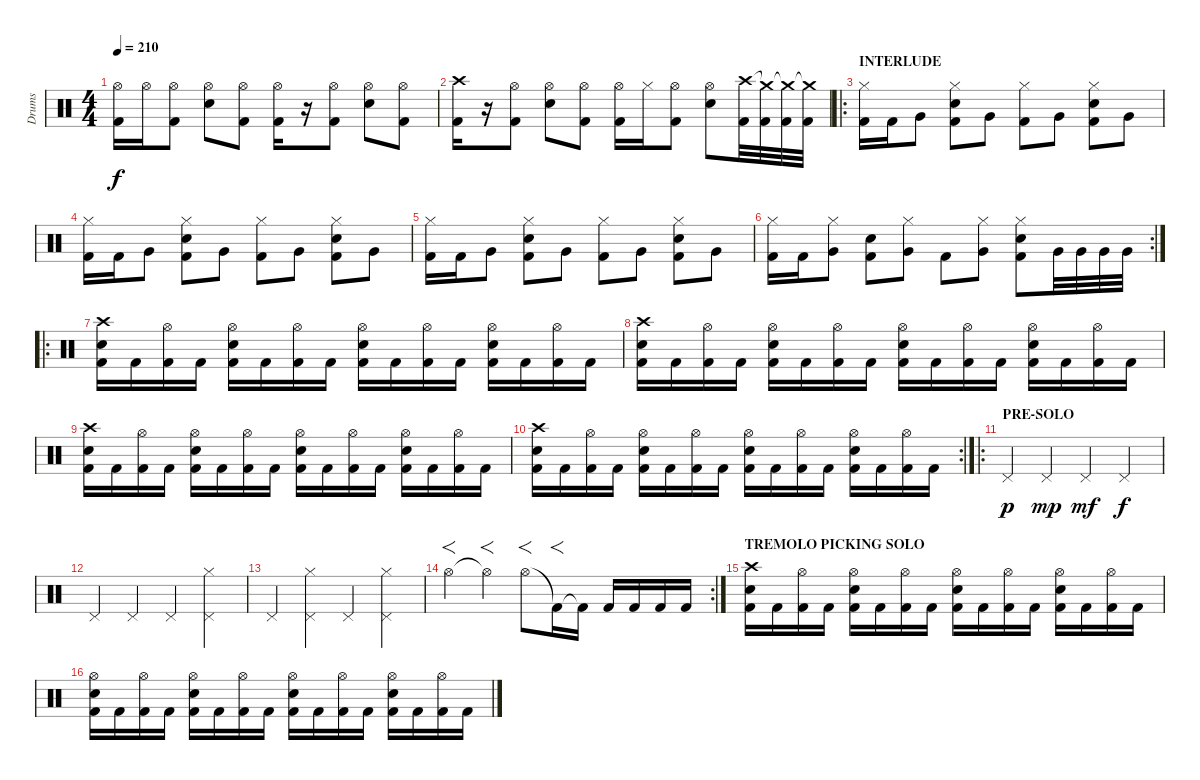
\track ("Drums" "Drums") {instrument percussion}
\staff {score}
\articulation defaults
\ts (4 4)
\tempo 210
\clef neutral
\ks c
("Hi-Hat (open)" "Kick (hit) 2").16{dy f} "Hi-Hat (open)".16 ("Hi-Hat (open)" "Kick (hit) 2").8 ("Hi-Hat (open)" "Electric Snare (hit)").8 ("Hi-Hat (open)" "Kick (hit) 2").8 ("Hi-Hat (open)" "Kick (hit) 2").16 r.16 ("Hi-Hat (open)" "Kick (hit) 2").8 ("Hi-Hat (open)" "Electric Snare (hit)").8 ("Hi-Hat (open)" "Kick (hit) 2").8 |
("Crash high (hit)" "Kick (hit) 2").16 r.16 ("Hi-Hat (open)" "Kick (hit) 2").8 ("Hi-Hat (open)" "Electric Snare (hit)").8 ("Hi-Hat (open)" "Kick (hit) 2").8 ("Hi-Hat (open)" "Kick (hit) 2").16 "Hi-Hat (closed)".16 ("Hi-Hat (open)" "Kick (hit) 2").8 ("Hi-Hat (open)" "Electric Snare (hit)").8 ("Crash high (hit)" "Kick (hit) 2").32 ("Crash medium (hit)"{t} "Kick (hit) 2").32 ("Crash medium (hit)"{t} "Kick (hit) 2").32 ("Crash medium (hit)"{t} "Kick (hit) 2").32 |
\ro
\section ("" "INTERLUDE")
("Hi-Hat (closed)" "Kick (hit) 2").16 "Kick (hit) 2".16 "Very Low Tom (hit)".8 ("Hi-Hat (closed)" "Electric Snare (hit)" "Kick (hit) 2").8 "Very Low Tom (hit)".8 ("Hi-Hat (closed)" "Kick (hit) 2").8 "Very Low Tom (hit)".8 ("Hi-Hat (closed)" "Electric Snare (hit)" "Kick (hit) 2").8 "Very Low Tom (hit)".8 |
("Hi-Hat (closed)" "Kick (hit) 2").16 "Kick (hit) 2".16 "Very Low Tom (hit)".8 ("Hi-Hat (closed)" "Electric Snare (hit)" "Kick (hit) 2").8 "Very Low Tom (hit)".8 ("Hi-Hat (closed)" "Kick (hit) 2").8 "Very Low Tom (hit)".8 ("Hi-Hat (closed)" "Electric Snare (hit)" "Kick (hit) 2").8 "Very Low Tom (hit)".8 |
("Hi-Hat (closed)" "Kick (hit) 2").16 "Kick (hit) 2".16 "Very Low Tom (hit)".8 ("Hi-Hat (closed)" "Electric Snare (hit)" "Kick (hit) 2").8 "Very Low Tom (hit)".8 ("Hi-Hat (closed)" "Kick (hit) 2").8 "Very Low Tom (hit)".8 ("Hi-Hat (closed)" "Electric Snare (hit)" "Kick (hit) 2").8 "Very Low Tom (hit)".8 |
\rc 2
("Hi-Hat (closed)" "Kick (hit) 2").16 "Kick (hit) 2".16 ("Hi-Hat (closed)" "Very Low Tom (hit)").8 ("Electric Snare (hit)" "Kick (hit) 2").8 ("Hi-Hat (closed)" "Very Low Tom (hit)").8 "Kick (hit) 2".8 ("Hi-Hat (closed)" "Very Low Tom (hit)").8 ("Hi-Hat (closed)" "Electric Snare (hit)" "Kick (hit) 2").8 "Very Low Tom (hit)".32 "Very Low Tom (hit)".32 "Very Low Tom (hit)".32 "Very Low Tom (hit)".32 |
\ro
("Crash high (hit)" "Electric Snare (hit)" "Kick (hit) 2").16 "Kick (hit) 2".16 ("Hi-Hat (open)" "Kick (hit) 2").16 "Kick (hit) 2".16 ("Hi-Hat (open)" "Electric Snare (hit)" "Kick (hit) 2").16 "Kick (hit) 2".16 ("Hi-Hat (open)" "Kick (hit) 2").16 "Kick (hit) 2".16 ("Hi-Hat (open)" "Electric Snare (hit)" "Kick (hit) 2").16 "Kick (hit) 2".16 ("Hi-Hat (open)" "Kick (hit) 2").16 "Kick (hit) 2".16 ("Hi-Hat (open)" "Electric Snare (hit)" "Kick (hit) 2").16 "Kick (hit) 2".16 ("Hi-Hat (open)" "Kick (hit) 2").16 "Kick (hit) 2".16 |
("Crash high (hit)" "Electric Snare (hit)" "Kick (hit) 2").16 "Kick (hit) 2".16 ("Hi-Hat (open)" "Kick (hit) 2").16 "Kick (hit) 2".16 ("Hi-Hat (open)" "Electric Snare (hit)" "Kick (hit) 2").16 "Kick (hit) 2".16 ("Hi-Hat (open)" "Kick (hit) 2").16 "Kick (hit) 2".16 ("Hi-Hat (open)" "Electric Snare (hit)" "Kick (hit) 2").16 "Kick (hit) 2".16 ("Hi-Hat (open)" "Kick (hit) 2").16 "Kick (hit) 2".16 ("Hi-Hat (open)" "Electric Snare (hit)" "Kick (hit) 2").16 "Kick (hit) 2".16 ("Hi-Hat (open)" "Kick (hit) 2").16 "Kick (hit) 2".16 |
("Crash high (hit)" "Electric Snare (hit)" "Kick (hit) 2").16 "Kick (hit) 2".16 ("Hi-Hat (open)" "Kick (hit) 2").16 "Kick (hit) 2".16 ("Hi-Hat (open)" "Electric Snare (hit)" "Kick (hit) 2").16 "Kick (hit) 2".16 ("Hi-Hat (open)" "Kick (hit) 2").16 "Kick (hit) 2".16 ("Hi-Hat (open)" "Electric Snare (hit)" "Kick (hit) 2").16 "Kick (hit) 2".16 ("Hi-Hat (open)" "Kick (hit) 2").16 "Kick (hit) 2".16 ("Hi-Hat (open)" "Electric Snare (hit)" "Kick (hit) 2").16 "Kick (hit) 2".16 ("Hi-Hat (open)" "Kick (hit) 2").16 "Kick (hit) 2".16 |
\rc 2
("Crash high (hit)" "Electric Snare (hit)" "Kick (hit) 2").16 "Kick (hit) 2".16 ("Hi-Hat (open)" "Kick (hit) 2").16 "Kick (hit) 2".16 ("Hi-Hat (open)" "Electric Snare (hit)" "Kick (hit) 2").16 "Kick (hit) 2".16 ("Hi-Hat (open)" "Kick (hit) 2").16 "Kick (hit) 2".16 ("Hi-Hat (open)" "Electric Snare (hit)" "Kick (hit) 2").16 "Kick (hit) 2".16 ("Hi-Hat (open)" "Kick (hit) 2").16 "Kick (hit) 2".16 ("Hi-Hat (open)" "Electric Snare (hit)" "Kick (hit) 2").16 "Kick (hit) 2".16 ("Hi-Hat (open)" "Kick (hit) 2").16 "Kick (hit) 2".16 |
\ro
\section ("" "PRE-SOLO")
"Pedal Hi-Hat (hit)".4{dy p} "Pedal Hi-Hat (hit)".4{dy mp} "Pedal Hi-Hat (hit)".4{dy mf} "Pedal Hi-Hat (hit)".4{dy f} |
"Pedal Hi-Hat (hit)".4 "Pedal Hi-Hat (hit)".4 "Pedal Hi-Hat (hit)".4 ("Hi-Hat (closed)" "Pedal Hi-Hat (hit)").4 |
"Pedal Hi-Hat (hit)".4 ("Hi-Hat (closed)" "Pedal Hi-Hat (hit)").4 "Pedal Hi-Hat (hit)".4 ("Hi-Hat (closed)" "Pedal Hi-Hat (hit)").4 |
\rc 2 "Hi-Hat (open)".4{f} "Hi-Hat (open)"{t}.4{f} "Hi-Hat (open)".8{f} "Kick (hit) 2"{t}.16{f} "Kick (hit) 2"{t}.16 "Kick (hit) 2".16 "Kick (hit) 2".16 "Kick (hit) 2".16 "Kick (hit) 2".16
|
\section ("" "TREMOLO PICKING SOLO")
("Crash high (hit)" "Electric Snare (hit)" "Kick (hit) 2").16 "Kick (hit) 2".16 ("Hi-Hat (open)" "Kick (hit) 2").16 "Kick (hit) 2".16 ("Hi-Hat (open)" "Electric Snare (hit)" "Kick (hit) 2").16 "Kick (hit) 2".16 ("Hi-Hat (open)" "Kick (hit) 2").16 "Kick (hit) 2".16 ("Hi-Hat (open)" "Electric Snare (hit)" "Kick (hit) 2").16 "Kick (hit) 2".16 ("Hi-Hat (open)" "Kick (hit) 2").16 "Kick (hit) 2".16 ("Hi-Hat (open)" "Electric Snare (hit)" "Kick (hit) 2").16 "Kick (hit) 2".16 ("Hi-Hat (open)" "Kick (hit) 2").16 "Kick (hit) 2".16 |
("Hi-Hat (open)" "Electric Snare (hit)" "Kick (hit) 2").16 "Kick (hit) 2".16 ("Hi-Hat (open)" "Kick (hit) 2").16 "Kick (hit) 2".16 ("Hi-Hat (open)" "Electric Snare (hit)" "Kick (hit) 2").16 "Kick (hit) 2".16 ("Hi-Hat (open)" "Kick (hit) 2").16 "Kick (hit) 2".16 ("Hi-Hat (open)" "Electric Snare (hit)" "Kick (hit) 2").16 "Kick (hit) 2".16 ("Hi-Hat (open)" "Kick (hit) 2").16 "Kick (hit) 2".16 ("Hi-Hat (open)" "Electric Snare (hit)" "Kick (hit) 2").16 "Kick (hit) 2".16 ("Hi-Hat (open)" "Kick (hit) 2").16 "Kick (hit) 2".16
